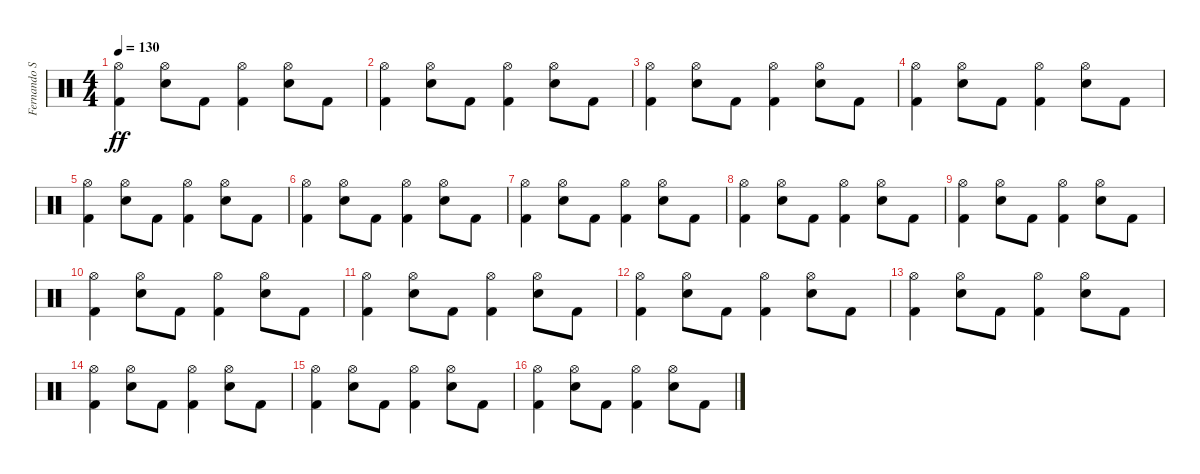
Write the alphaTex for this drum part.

\track ("Fernando Scarcella" "Fernando S") {instrument percussion}
\staff {score}
\articulation defaults
\ts (4 4)
\tempo 130
\clef neutral
\ks c
("Hi-Hat (open)" "Kick (hit) 2").4{dy ff} ("Hi-Hat (open)" "Snare (hit) 2").8 "Kick (hit) 2".8 ("Hi-Hat (open)" "Kick (hit) 2").4 ("Hi-Hat (open)" "Snare (hit) 2").8 "Kick (hit) 2".8 |
("Hi-Hat (open)" "Kick (hit) 2").4 ("Hi-Hat (open)" "Snare (hit) 2").8 "Kick (hit) 2".8 ("Hi-Hat (open)" "Kick (hit) 2").4 ("Hi-Hat (open)" "Snare (hit) 2").8 "Kick (hit) 2".8 |
("Hi-Hat (open)" "Kick (hit) 2").4 ("Hi-Hat (open)" "Snare (hit) 2").8 "Kick (hit) 2".8 ("Hi-Hat (open)" "Kick (hit) 2").4 ("Hi-Hat (open)" "Snare (hit) 2").8 "Kick (hit) 2".8 |
("Hi-Hat (open)" "Kick (hit) 2").4 ("Hi-Hat (open)" "Snare (hit) 2").8 "Kick (hit) 2".8 ("Hi-Hat (open)" "Kick (hit) 2").4 ("Hi-Hat (open)" "Snare (hit) 2").8 "Kick (hit) 2".8 |
("Hi-Hat (open)" "Kick (hit) 2").4 ("Hi-Hat (open)" "Snare (hit) 2").8 "Kick (hit) 2".8 ("Hi-Hat (open)" "Kick (hit) 2").4 ("Hi-Hat (open)" "Snare (hit) 2").8 "Kick (hit) 2".8 |
("Hi-Hat (open)" "Kick (hit) 2").4 ("Hi-Hat (open)" "Snare (hit) 2").8 "Kick (hit) 2".8 ("Hi-Hat (open)" "Kick (hit) 2").4 ("Hi-Hat (open)" "Snare (hit) 2").8 "Kick (hit) 2".8 |
("Hi-Hat (open)" "Kick (hit) 2").4 ("Hi-Hat (open)" "Snare (hit) 2").8 "Kick (hit) 2".8 ("Hi-Hat (open)" "Kick (hit) 2").4 ("Hi-Hat (open)" "Snare (hit) 2").8 "Kick (hit) 2".8 |
("Hi-Hat (open)" "Kick (hit) 2").4 ("Hi-Hat (open)" "Snare (hit) 2").8 "Kick (hit) 2".8 ("Hi-Hat (open)" "Kick (hit) 2").4 ("Hi-Hat (open)" "Snare (hit) 2").8 "Kick (hit) 2".8 |
("Hi-Hat (open)" "Kick (hit) 2").4 ("Hi-Hat (open)" "Snare (hit) 2").8 "Kick (hit) 2".8 ("Hi-Hat (open)" "Kick (hit) 2").4 ("Hi-Hat (open)" "Snare (hit) 2").8 "Kick (hit) 2".8 |
("Hi-Hat (open)" "Kick (hit) 2").4 ("Hi-Hat (open)" "Snare (hit) 2").8 "Kick (hit) 2".8 ("Hi-Hat (open)" "Kick (hit) 2").4 ("Hi-Hat (open)" "Snare (hit) 2").8 "Kick (hit) 2".8 |
("Hi-Hat (open)" "Kick (hit) 2").4 ("Hi-Hat (open)" "Snare (hit) 2").8 "Kick (hit) 2".8 ("Hi-Hat (open)" "Kick (hit) 2").4 ("Hi-Hat (open)" "Snare (hit) 2").8 "Kick (hit) 2".8 |
("Hi-Hat (open)" "Kick (hit) 2").4 ("Hi-Hat (open)" "Snare (hit) 2").8 "Kick (hit) 2".8 ("Hi-Hat (open)" "Kick (hit) 2").4 ("Hi-Hat (open)" "Snare (hit) 2").8 "Kick (hit) 2".8 |
("Hi-Hat (open)" "Kick (hit) 2").4 ("Hi-Hat (open)" "Snare (hit) 2").8 "Kick (hit) 2".8 ("Hi-Hat (open)" "Kick (hit) 2").4 ("Hi-Hat (open)" "Snare (hit) 2").8 "Kick (hit) 2".8 |
("Hi-Hat (open)" "Kick (hit) 2").4 ("Hi-Hat (open)" "Snare (hit) 2").8 "Kick (hit) 2".8 ("Hi-Hat (open)" "Kick (hit) 2").4 ("Hi-Hat (open)" "Snare (hit) 2").8 "Kick (hit) 2".8 |
("Hi-Hat (open)" "Kick (hit) 2").4 ("Hi-Hat (open)" "Snare (hit) 2").8 "Kick (hit) 2".8 ("Hi-Hat (open)" "Kick (hit) 2").4 ("Hi-Hat (open)" "Snare (hit) 2").8 "Kick (hit) 2".8 |
("Hi-Hat (open)" "Kick (hit) 2").4 ("Hi-Hat (open)" "Snare (hit) 2").8 "Kick (hit) 2".8 ("Hi-Hat (open)" "Kick (hit) 2").4 ("Hi-Hat (open)" "Snare (hit) 2").8 "Kick (hit) 2".8
